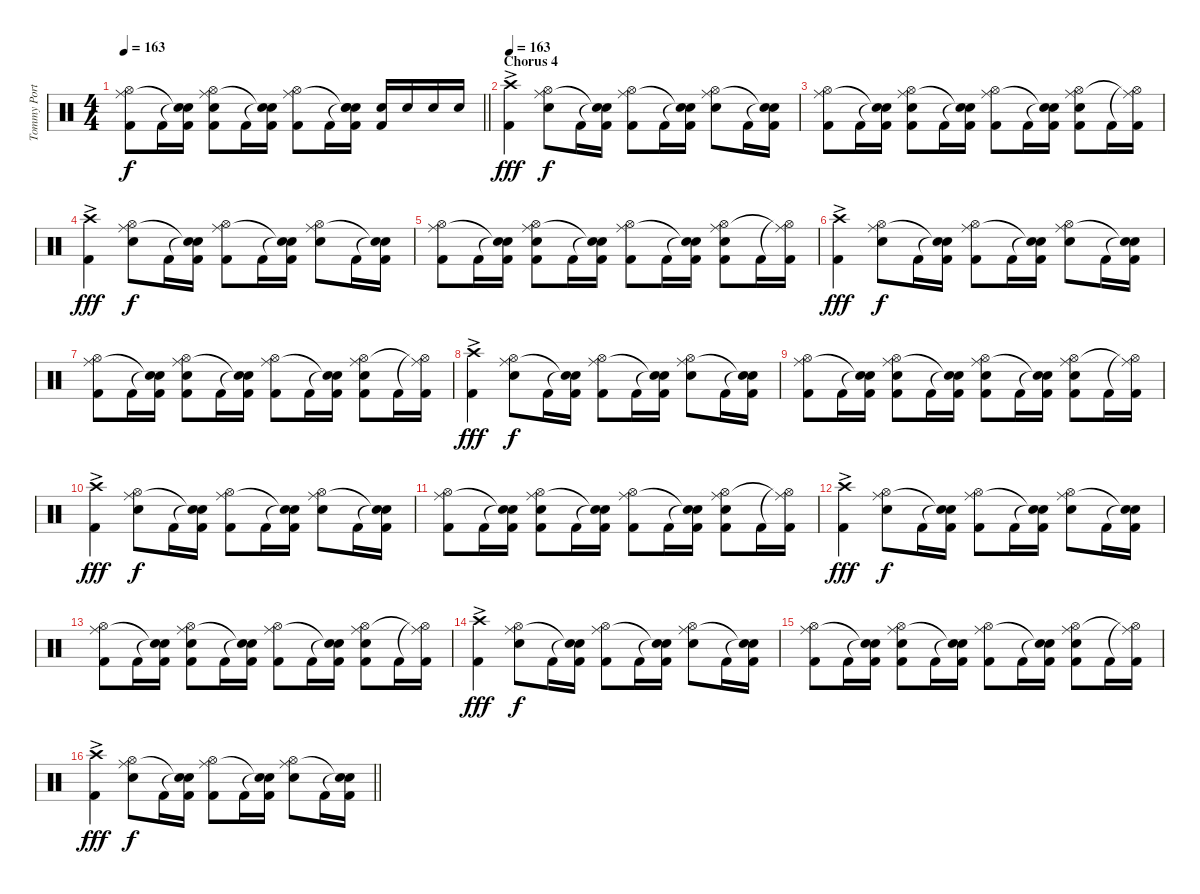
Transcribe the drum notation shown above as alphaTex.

\track ("Tommy Portimo" "Tommy Port") {instrument percussion}
\staff {score}
\articulation defaults
\ts (4 4)
\tempo 163
\clef neutral
\barLineRight lightlight
\ks c
("Hi-Hat (open)" "Ride (middle)" "Kick (hit) 2").8{dy f} "Kick (hit) 2".16 ("Snare (hit)"{t} "Snare (hit)"{t} "Kick (hit) 2").16 ("Hi-Hat (open)" "Ride (middle)" "Electric Snare (hit)" "Kick (hit) 2").8 "Kick (hit) 2".16 ("Snare (hit)"{t} "Snare (hit)"{t} "Kick (hit) 2").16 ("Hi-Hat (open)" "Ride (middle)" "Kick (hit) 2").8 "Kick (hit) 2".16 ("Snare (hit)"{t} "Snare (hit)"{t} "Electric Snare (hit)" "Kick (hit) 2").16 ("Electric Snare (hit)" "Kick (hit) 2").16 "Electric Snare (hit)".16 "Electric Snare (hit)".16 "Electric Snare (hit)".16 |
\section ("" "Chorus 4")
\tempo 163
("Crash high (hit)"{ac} "Kick (hit) 2").4{dy fff} ("Hi-Hat (open)" "Ride (middle)" "Electric Snare (hit)").8{dy f} "Kick (hit) 2".16 ("Snare (hit)"{t} "Snare (hit)"{t} "Kick (hit) 2").16 ("Hi-Hat (open)" "Ride (middle)" "Kick (hit) 2").8 "Kick (hit) 2".16 ("Snare (hit)"{t} "Snare (hit)"{t} "Kick (hit) 2").16 ("Hi-Hat (open)" "Ride (middle)" "Electric Snare (hit)").8 "Kick (hit) 2".16 ("Snare (hit)"{t} "Snare (hit)"{t} "Kick (hit) 2").16 |
("Hi-Hat (open)" "Ride (middle)" "Kick (hit) 2").8 "Kick (hit) 2".16 ("Snare (hit)"{t} "Snare (hit)"{t} "Kick (hit) 2").16 ("Hi-Hat (open)" "Ride (middle)" "Electric Snare (hit)" "Kick (hit) 2").8 "Kick (hit) 2".16 ("Snare (hit)"{t} "Snare (hit)"{t} "Kick (hit) 2").16 ("Hi-Hat (open)" "Ride (middle)" "Kick (hit) 2").8 "Kick (hit) 2".16 ("Snare (hit)"{t} "Snare (hit)"{t} "Kick (hit) 2").16 ("Hi-Hat (open)" "Ride (middle)" "Electric Snare (hit)" "Kick (hit) 2").8 "Kick (hit) 2".16 ("Hi-Hat (open)"{t} "Ride (middle)"{t} "Kick (hit) 2").16 |
("Crash high (hit)"{ac} "Kick (hit) 2").4{dy fff} ("Hi-Hat (open)" "Ride (middle)" "Electric Snare (hit)").8{dy f} "Kick (hit) 2".16 ("Snare (hit)"{t} "Snare (hit)"{t} "Kick (hit) 2").16 ("Hi-Hat (open)" "Ride (middle)" "Kick (hit) 2").8 "Kick (hit) 2".16 ("Snare (hit)"{t} "Snare (hit)"{t} "Kick (hit) 2").16 ("Hi-Hat (open)" "Ride (middle)" "Electric Snare (hit)").8 "Kick (hit) 2".16 ("Snare (hit)"{t} "Snare (hit)"{t} "Kick (hit) 2").16 |
("Hi-Hat (open)" "Ride (middle)" "Kick (hit) 2").8 "Kick (hit) 2".16 ("Snare (hit)"{t} "Snare (hit)"{t} "Kick (hit) 2").16 ("Hi-Hat (open)" "Ride (middle)" "Electric Snare (hit)" "Kick (hit) 2").8 "Kick (hit) 2".16 ("Snare (hit)"{t} "Snare (hit)"{t} "Kick (hit) 2").16 ("Hi-Hat (open)" "Ride (middle)" "Kick (hit) 2").8 "Kick (hit) 2".16 ("Snare (hit)"{t} "Snare (hit)"{t} "Kick (hit) 2").16 ("Hi-Hat (open)" "Ride (middle)" "Electric Snare (hit)" "Kick (hit) 2").8 "Kick (hit) 2".16 ("Hi-Hat (open)"{t} "Ride (middle)"{t} "Kick (hit) 2").16 |
("Crash high (hit)"{ac} "Kick (hit) 2").4{dy fff} ("Hi-Hat (open)" "Ride (middle)" "Electric Snare (hit)").8{dy f} "Kick (hit) 2".16 ("Snare (hit)"{t} "Snare (hit)"{t} "Kick (hit) 2").16 ("Hi-Hat (open)" "Ride (middle)" "Kick (hit) 2").8 "Kick (hit) 2".16 ("Snare (hit)"{t} "Snare (hit)"{t} "Kick (hit) 2").16 ("Hi-Hat (open)" "Ride (middle)" "Electric Snare (hit)").8 "Kick (hit) 2".16 ("Snare (hit)"{t} "Snare (hit)"{t} "Kick (hit) 2").16 |
("Hi-Hat (open)" "Ride (middle)" "Kick (hit) 2").8 "Kick (hit) 2".16 ("Snare (hit)"{t} "Snare (hit)"{t} "Kick (hit) 2").16 ("Hi-Hat (open)" "Ride (middle)" "Electric Snare (hit)" "Kick (hit) 2").8 "Kick (hit) 2".16 ("Snare (hit)"{t} "Snare (hit)"{t} "Kick (hit) 2").16 ("Hi-Hat (open)" "Ride (middle)" "Kick (hit) 2").8 "Kick (hit) 2".16 ("Snare (hit)"{t} "Snare (hit)"{t} "Kick (hit) 2").16 ("Hi-Hat (open)" "Ride (middle)" "Electric Snare (hit)" "Kick (hit) 2").8 "Kick (hit) 2".16 ("Hi-Hat (open)"{t} "Ride (middle)"{t} "Kick (hit) 2").16 |
("Crash high (hit)"{ac} "Kick (hit) 2").4{dy fff} ("Hi-Hat (open)" "Ride (middle)" "Electric Snare (hit)").8{dy f} "Kick (hit) 2".16 ("Snare (hit)"{t} "Snare (hit)"{t} "Kick (hit) 2").16 ("Hi-Hat (open)" "Ride (middle)" "Kick (hit) 2").8 "Kick (hit) 2".16 ("Snare (hit)"{t} "Snare (hit)"{t} "Kick (hit) 2").16 ("Hi-Hat (open)" "Ride (middle)" "Electric Snare (hit)").8 "Kick (hit) 2".16 ("Snare (hit)"{t} "Snare (hit)"{t} "Kick (hit) 2").16 |
("Hi-Hat (open)" "Ride (middle)" "Kick (hit) 2").8 "Kick (hit) 2".16 ("Snare (hit)"{t} "Snare (hit)"{t} "Kick (hit) 2").16 ("Hi-Hat (open)" "Ride (middle)" "Electric Snare (hit)" "Kick (hit) 2").8 "Kick (hit) 2".16 ("Snare (hit)"{t} "Snare (hit)"{t} "Kick (hit) 2").16 ("Hi-Hat (open)" "Ride (middle)" "Electric Snare (hit)" "Kick (hit) 2").8 "Kick (hit) 2".16 ("Snare (hit)"{t} "Snare (hit)"{t} "Kick (hit) 2").16 ("Hi-Hat (open)" "Ride (middle)" "Electric Snare (hit)" "Kick (hit) 2").8 "Kick (hit) 2".16 ("Hi-Hat (open)"{t} "Ride (middle)"{t} "Kick (hit) 2").16 |
("Crash high (hit)"{ac} "Kick (hit) 2").4{dy fff} ("Hi-Hat (open)" "Ride (middle)" "Electric Snare (hit)").8{dy f} "Kick (hit) 2".16 ("Snare (hit)"{t} "Snare (hit)"{t} "Kick (hit) 2").16 ("Hi-Hat (open)" "Ride (middle)" "Kick (hit) 2").8 "Kick (hit) 2".16 ("Snare (hit)"{t} "Snare (hit)"{t} "Kick (hit) 2").16 ("Hi-Hat (open)" "Ride (middle)" "Electric Snare (hit)").8 "Kick (hit) 2".16 ("Snare (hit)"{t} "Snare (hit)"{t} "Kick (hit) 2").16 |
("Hi-Hat (open)" "Ride (middle)" "Kick (hit) 2").8 "Kick (hit) 2".16 ("Snare (hit)"{t} "Snare (hit)"{t} "Kick (hit) 2").16 ("Hi-Hat (open)" "Ride (middle)" "Electric Snare (hit)" "Kick (hit) 2").8 "Kick (hit) 2".16 ("Snare (hit)"{t} "Snare (hit)"{t} "Kick (hit) 2").16 ("Hi-Hat (open)" "Ride (middle)" "Kick (hit) 2").8 "Kick (hit) 2".16 ("Snare (hit)"{t} "Snare (hit)"{t} "Kick (hit) 2").16 ("Hi-Hat (open)" "Ride (middle)" "Electric Snare (hit)" "Kick (hit) 2").8 "Kick (hit) 2".16 ("Hi-Hat (open)"{t} "Ride (middle)"{t} "Kick (hit) 2").16 |
("Crash high (hit)"{ac} "Kick (hit) 2").4{dy fff} ("Hi-Hat (open)" "Ride (middle)" "Electric Snare (hit)").8{dy f} "Kick (hit) 2".16 ("Snare (hit)"{t} "Snare (hit)"{t} "Kick (hit) 2").16 ("Hi-Hat (open)" "Ride (middle)" "Kick (hit) 2").8 "Kick (hit) 2".16 ("Snare (hit)"{t} "Snare (hit)"{t} "Kick (hit) 2").16 ("Hi-Hat (open)" "Ride (middle)" "Electric Snare (hit)").8 "Kick (hit) 2".16 ("Snare (hit)"{t} "Snare (hit)"{t} "Kick (hit) 2").16 |
("Hi-Hat (open)" "Ride (middle)" "Kick (hit) 2").8 "Kick (hit) 2".16 ("Snare (hit)"{t} "Snare (hit)"{t} "Kick (hit) 2").16 ("Hi-Hat (open)" "Ride (middle)" "Electric Snare (hit)" "Kick (hit) 2").8 "Kick (hit) 2".16 ("Snare (hit)"{t} "Snare (hit)"{t} "Kick (hit) 2").16 ("Hi-Hat (open)" "Ride (middle)" "Kick (hit) 2").8 "Kick (hit) 2".16 ("Snare (hit)"{t} "Snare (hit)"{t} "Kick (hit) 2").16 ("Hi-Hat (open)" "Ride (middle)" "Electric Snare (hit)" "Kick (hit) 2").8 "Kick (hit) 2".16 ("Hi-Hat (open)"{t} "Ride (middle)"{t} "Kick (hit) 2").16 |
("Crash high (hit)"{ac} "Kick (hit) 2").4{dy fff} ("Hi-Hat (open)" "Ride (middle)" "Electric Snare (hit)").8{dy f} "Kick (hit) 2".16 ("Snare (hit)"{t} "Snare (hit)"{t} "Kick (hit) 2").16 ("Hi-Hat (open)" "Ride (middle)" "Kick (hit) 2").8 "Kick (hit) 2".16 ("Snare (hit)"{t} "Snare (hit)"{t} "Kick (hit) 2").16 ("Hi-Hat (open)" "Ride (middle)" "Electric Snare (hit)").8 "Kick (hit) 2".16 ("Snare (hit)"{t} "Snare (hit)"{t} "Kick (hit) 2").16 |
("Hi-Hat (open)" "Ride (middle)" "Kick (hit) 2").8 "Kick (hit) 2".16 ("Snare (hit)"{t} "Snare (hit)"{t} "Kick (hit) 2").16 ("Hi-Hat (open)" "Ride (middle)" "Electric Snare (hit)" "Kick (hit) 2").8 "Kick (hit) 2".16 ("Snare (hit)"{t} "Snare (hit)"{t} "Kick (hit) 2").16 ("Hi-Hat (open)" "Ride (middle)" "Kick (hit) 2").8 "Kick (hit) 2".16 ("Snare (hit)"{t} "Snare (hit)"{t} "Kick (hit) 2").16 ("Hi-Hat (open)" "Ride (middle)" "Electric Snare (hit)" "Kick (hit) 2").8 "Kick (hit) 2".16 ("Hi-Hat (open)"{t} "Ride (middle)"{t} "Kick (hit) 2").16 |
\barLineRight lightlight
("Crash high (hit)"{ac} "Kick (hit) 2").4{dy fff} ("Hi-Hat (open)" "Ride (middle)" "Electric Snare (hit)").8{dy f} "Kick (hit) 2".16 ("Snare (hit)"{t} "Snare (hit)"{t} "Kick (hit) 2").16 ("Hi-Hat (open)" "Ride (middle)" "Kick (hit) 2").8 "Kick (hit) 2".16 ("Snare (hit)"{t} "Snare (hit)"{t} "Kick (hit) 2").16 ("Hi-Hat (open)" "Ride (middle)" "Electric Snare (hit)").8 "Kick (hit) 2".16 ("Snare (hit)"{t} "Snare (hit)"{t} "Kick (hit) 2").16
